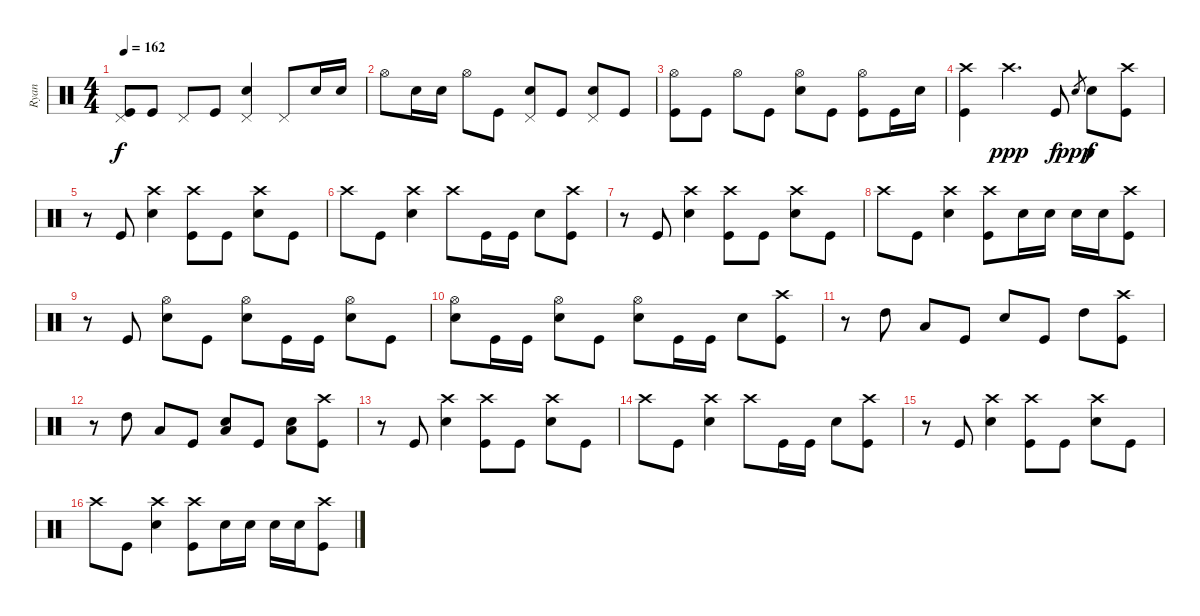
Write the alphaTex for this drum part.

\track ("Ryan" "Ryan") {instrument percussion}
\staff {score}
\articulation defaults
\ts (4 4)
\tempo 162
\clef neutral
\ks c
("Pedal Hi-Hat (hit)" "Kick (hit)").8{dy f} "Kick (hit)".8 "Pedal Hi-Hat (hit)".8 "Kick (hit)".8 ("Pedal Hi-Hat (hit)" "Electric Snare (hit)").4 "Pedal Hi-Hat (hit)".8 "Electric Snare (hit)".16 "Electric Snare (hit)".16 |
"Hi-Hat (open)".8 "Electric Snare (hit)".16 "Electric Snare (hit)".16 "Hi-Hat (open)".8 "Kick (hit)".8 ("Pedal Hi-Hat (hit)" "Electric Snare (hit)").8 "Kick (hit)".8 ("Pedal Hi-Hat (hit)" "Electric Snare (hit)").8 "Kick (hit)".8 |
("Hi-Hat (open)" "Kick (hit)").8 "Kick (hit)".8 "Hi-Hat (open)".8 "Kick (hit)".8 ("Hi-Hat (open)" "Electric Snare (hit)").8 "Kick (hit)".8 ("Hi-Hat (open)" "Kick (hit)").8 "Kick (hit)".16 "Electric Snare (hit)".16 |
("Crash high (hit)" "Kick (hit)").4 "Crash high (hit)".4{d dy ppp} "Kick (hit)".8{dy f} "Electric Snare (hit)".8{gr dy ppp} "Electric Snare (hit)".8{dy f} ("Crash high (hit)" "Kick (hit)").8 |
r.8 "Kick (hit)".8 ("Crash high (hit)" "Electric Snare (hit)").4 ("Crash high (hit)" "Kick (hit)").8 "Kick (hit)".8 ("Crash high (hit)" "Electric Snare (hit)").8 "Kick (hit)".8 |
"Crash high (hit)".8 "Kick (hit)".8 ("Crash high (hit)" "Electric Snare (hit)").4 "Crash high (hit)".8 "Kick (hit)".16 "Kick (hit)".16 "Electric Snare (hit)".8 ("Crash high (hit)" "Kick (hit)").8 |
r.8 "Kick (hit)".8 ("Crash high (hit)" "Electric Snare (hit)").4 ("Crash high (hit)" "Kick (hit)").8 "Kick (hit)".8 ("Crash high (hit)" "Electric Snare (hit)").8 "Kick (hit)".8 |
"Crash high (hit)".8 "Kick (hit)".8 ("Crash high (hit)" "Electric Snare (hit)").4 ("Crash high (hit)" "Kick (hit)").8 "Electric Snare (hit)".16 "Electric Snare (hit)".16 "Electric Snare (hit)".16 "Electric Snare (hit)".16 ("Crash high (hit)" "Kick (hit)").8 |
r.8 "Kick (hit)".8 ("Hi-Hat (open)" "Electric Snare (hit)").8 "Kick (hit)".8 ("Hi-Hat (open)" "Electric Snare (hit)").8 "Kick (hit)".16 "Kick (hit)".16 ("Hi-Hat (open)" "Electric Snare (hit)").8 "Kick (hit)".8 |
("Hi-Hat (open)" "Electric Snare (hit)").8 "Kick (hit)".16 "Kick (hit)".16 ("Hi-Hat (open)" "Electric Snare (hit)").8 "Kick (hit)".8 ("Hi-Hat (open)" "Electric Snare (hit)").8 "Kick (hit)".16 "Kick (hit)".16 "Electric Snare (hit)".8 ("Crash high (hit)" "Kick (hit)").8 |
r.8 "High Tom (hit)".8 "Low Floor Tom (hit)".8 "Kick (hit)".8 "Electric Snare (hit)".8 "Kick (hit)".8 "High Tom (hit)".8 ("Crash high (hit)" "Kick (hit)").8 |
r.8 "High Tom (hit)".8 "Low Floor Tom (hit)".8 "Kick (hit)".8 ("Electric Snare (hit)" "Low Floor Tom (hit)").8 "Kick (hit)".8 ("Electric Snare (hit)" "Low Floor Tom (hit)").8 ("Crash high (hit)" "Kick (hit)").8 |
r.8 "Kick (hit)".8 ("Crash high (hit)" "Electric Snare (hit)").4 ("Crash high (hit)" "Kick (hit)").8 "Kick (hit)".8 ("Crash high (hit)" "Electric Snare (hit)").8 "Kick (hit)".8 |
"Crash high (hit)".8 "Kick (hit)".8 ("Crash high (hit)" "Electric Snare (hit)").4 "Crash high (hit)".8 "Kick (hit)".16 "Kick (hit)".16 "Electric Snare (hit)".8 ("Crash high (hit)" "Kick (hit)").8 |
r.8 "Kick (hit)".8 ("Crash high (hit)" "Electric Snare (hit)").4 ("Crash high (hit)" "Kick (hit)").8 "Kick (hit)".8 ("Crash high (hit)" "Electric Snare (hit)").8 "Kick (hit)".8 |
"Crash high (hit)".8 "Kick (hit)".8 ("Crash high (hit)" "Electric Snare (hit)").4 ("Crash high (hit)" "Kick (hit)").8 "Electric Snare (hit)".16 "Electric Snare (hit)".16 "Electric Snare (hit)".16 "Electric Snare (hit)".16 ("Crash high (hit)" "Kick (hit)").8
